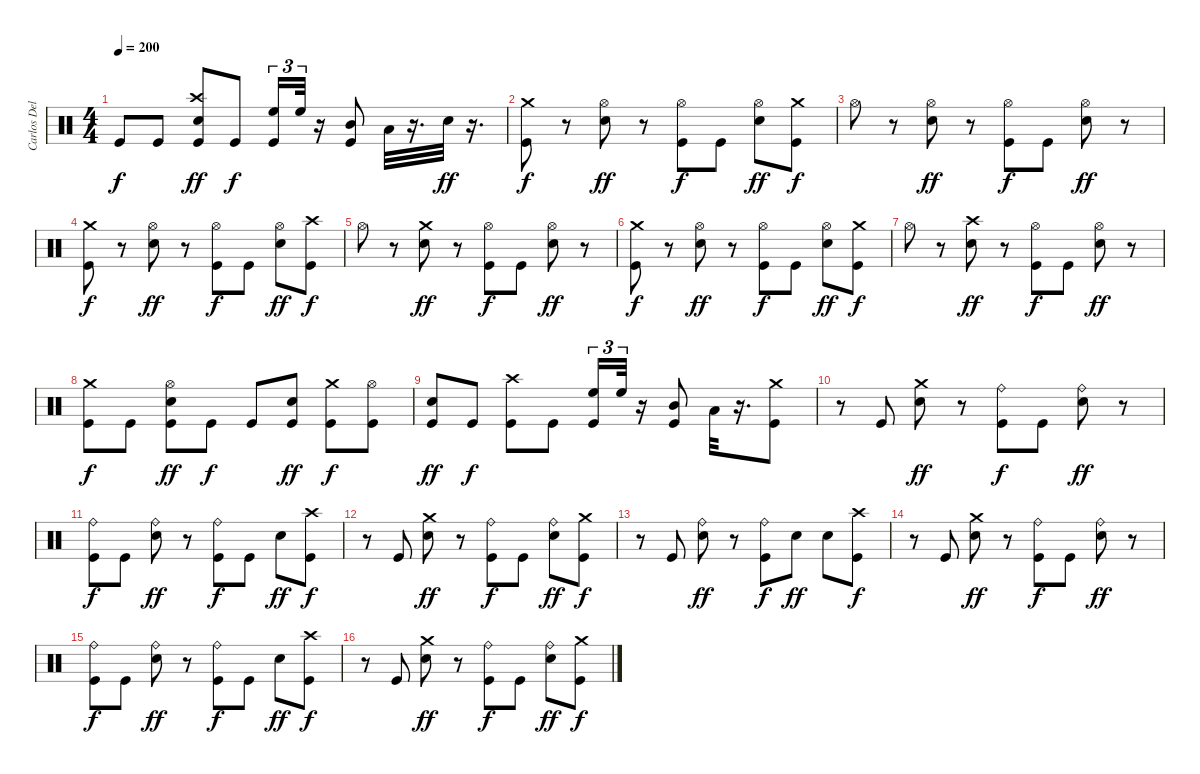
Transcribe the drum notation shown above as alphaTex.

\track ("Carlos Delgado" "Carlos Del") {instrument percussion}
\staff {score}
\articulation defaults
\ts (4 4)
\tempo 200
\clef neutral
\ks c "Kick (hit)".8{dy f} "Kick (hit)".8
("Crash high (hit)" "Electric Snare (hit)" "Kick (hit)").8{dy ff} "Kick (hit)".8{dy f} ("Kick (hit)" "High Floor Tom (hit)").16{tu (3 2)} "High Floor Tom (hit)".32{tu (3 2)} r.16 ("Kick (hit)" "Mid Tom (hit)").8 "Low Tom (hit)".32 r.16{d} "Electric Snare (hit)".32{dy ff} r.16{d} |
("Crash medium (hit)" "Kick (hit)").8{dy f} r.8 ("Electric Snare (hit)" "Hi-Hat (open)").8{dy ff} r.8 ("Kick (hit)" "Hi-Hat (open)").8{dy f} "Kick (hit)".8 ("Hi-Hat (open)" "Electric Snare (hit)").8{dy ff} ("Crash medium (hit)" "Kick (hit)").8{dy f} |
"Hi-Hat (open)".8 r.8 ("Electric Snare (hit)" "Hi-Hat (open)").8{dy ff} r.8 ("Hi-Hat (open)" "Kick (hit)").8{dy f} "Kick (hit)".8 ("Hi-Hat (open)" "Electric Snare (hit)").8{dy ff} r.8 |
("Crash medium (hit)" "Kick (hit)").8{dy f} r.8 ("Hi-Hat (open)" "Electric Snare (hit)").8{dy ff} r.8 ("Kick (hit)" "Hi-Hat (open)").8{dy f} "Kick (hit)".8 ("Hi-Hat (open)" "Electric Snare (hit)").8{dy ff} ("Crash high (hit)" "Kick (hit)").8{dy f} |
"Hi-Hat (open)".8 r.8 ("Electric Snare (hit)" "Crash medium (hit)").8{dy ff} r.8 ("Kick (hit)" "Hi-Hat (open)").8{dy f} "Kick (hit)".8 ("Hi-Hat (open)" "Electric Snare (hit)").8{dy ff} r.8 |
("Crash medium (hit)" "Kick (hit)").8{dy f} r.8 ("Electric Snare (hit)" "Hi-Hat (open)").8{dy ff} r.8 ("Hi-Hat (open)" "Kick (hit)").8{dy f} "Kick (hit)".8 ("Electric Snare (hit)" "Hi-Hat (open)").8{dy ff} ("Crash medium (hit)" "Kick (hit)").8{dy f} |
"Hi-Hat (open)".8 r.8 ("Crash high (hit)" "Electric Snare (hit)").8{dy ff} r.8 ("Kick (hit)" "Hi-Hat (open)").8{dy f} "Kick (hit)".8 ("Electric Snare (hit)" "Hi-Hat (open)").8{dy ff} r.8 |
("Crash medium (hit)" "Kick (hit)").8{dy f} "Kick (hit)".8 ("Kick (hit)" "Electric Snare (hit)" "Hi-Hat (open)").8{dy ff} "Kick (hit)".8{dy f} "Kick (hit)".8 ("Kick (hit)" "Electric Snare (hit)").8{dy ff} ("Kick (hit)" "Crash medium (hit)").8{dy f} ("Kick (hit)" "Hi-Hat (open)").8 |
("Electric Snare (hit)" "Kick (hit)").8{dy ff} "Kick (hit)".8{dy f} ("Crash high (hit)" "Kick (hit)").8 "Kick (hit)".8 ("High Floor Tom (hit)" "Kick (hit)").16{tu (3 2)} "High Floor Tom (hit)".32{tu (3 2)} r.16 ("Kick (hit)" "Mid Tom (hit)").8 "Low Tom (hit)".32 r.16{d} ("Crash medium (hit)" "Kick (hit)").8 |
r.8 "Kick (hit)".8 ("Electric Snare (hit)" "Crash medium (hit)").8{dy ff} r.8 ("Kick (hit)" "Ride (bell)").8{dy f} "Kick (hit)".8 ("Electric Snare (hit)" "Ride (bell)").8{dy ff} r.8 |
("Kick (hit)" "Ride (bell)").8{dy f} "Kick (hit)".8 ("Ride (bell)" "Electric Snare (hit)").8{dy ff} r.8 ("Kick (hit)" "Ride (bell)").8{dy f} "Kick (hit)".8 "Electric Snare (hit)".8{dy ff} ("Crash high (hit)" "Kick (hit)").8{dy f} |
r.8 "Kick (hit)".8 ("Electric Snare (hit)" "Crash medium (hit)").8{dy ff} r.8 ("Ride (bell)" "Kick (hit)").8{dy f} "Kick (hit)".8 ("Electric Snare (hit)" "Ride (bell)").8{dy ff} ("Kick (hit)" "Crash medium (hit)").8{dy f} |
r.8 "Kick (hit)".8 ("Ride (bell)" "Electric Snare (hit)").8{dy ff} r.8 ("Kick (hit)" "Ride (bell)").8{dy f} "Electric Snare (hit)".8{dy ff} "Electric Snare (hit)".8 ("Crash high (hit)" "Kick (hit)").8{dy f} |
r.8 "Kick (hit)".8 ("Electric Snare (hit)" "Crash medium (hit)").8{dy ff} r.8 ("Ride (bell)" "Kick (hit)").8{dy f} "Kick (hit)".8 ("Electric Snare (hit)" "Ride (bell)").8{dy ff} r.8 |
("Kick (hit)" "Ride (bell)").8{dy f} "Kick (hit)".8 ("Ride (bell)" "Electric Snare (hit)").8{dy ff} r.8 ("Ride (bell)" "Kick (hit)").8{dy f} "Kick (hit)".8 "Electric Snare (hit)".8{dy ff} ("Kick (hit)" "Crash high (hit)").8{dy f} |
r.8 "Kick (hit)".8 ("Crash medium (hit)" "Electric Snare (hit)").8{dy ff} r.8 ("Ride (bell)" "Kick (hit)").8{dy f} "Kick (hit)".8 ("Electric Snare (hit)" "Ride (bell)").8{dy ff} ("Kick (hit)" "Crash medium (hit)").8{dy f}
